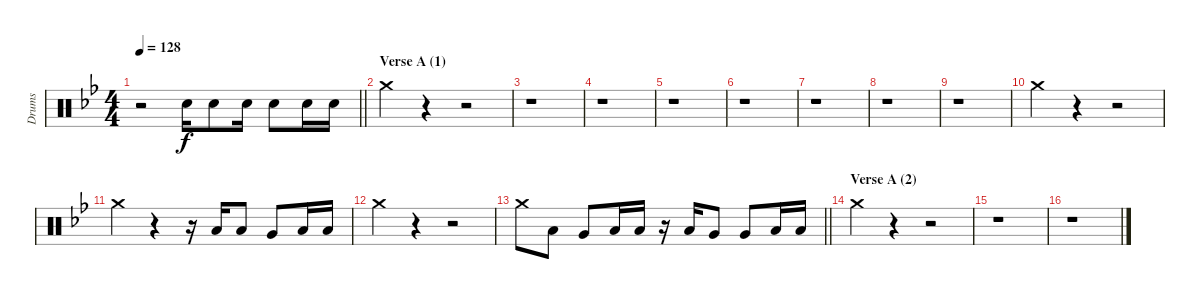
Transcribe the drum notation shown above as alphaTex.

\track ("Drums" "Drums") {instrument percussion}
\staff {score}
\articulation defaults
\ts (4 4)
\tempo 128
\clef neutral
\barLineRight lightlight
\ks gminor
r.2{dy f} "Electric Snare (hit)".16 "Electric Snare (hit)".8 "Electric Snare (hit)".16 "Electric Snare (hit)".8 "Electric Snare (hit)".16 "Electric Snare (hit)".16 |
\section ("" "Verse A (1)")
"Crash medium (hit)".4 r.4 r.2 |
r.1 |
r.1 |
r.1 |
r.1 |
r.1 |
r.1 |
r.1 |
"Crash medium (hit)".4 r.4 r.2 |
"Crash medium (hit)".4 r.4 r.16 "Low Tom (hit)".16 "Low Tom (hit)".8 "Very Low Tom (hit)".8 "Low Floor Tom (hit)".16 "Low Floor Tom (hit)".16 |
"Crash medium (hit)".4 r.4 r.2 |
\barLineRight lightlight "Crash medium (hit)".8 "Low Tom (hit)".8 "Very Low Tom (hit)".8 "Low Tom (hit)".16 "Low Tom (hit)".16
r.16 "Low Tom (hit)".16 "Very Low Tom (hit)".8 "Very Low Tom (hit)".8 "Low Floor Tom (hit)".16 "Low Floor Tom (hit)".16 |
\section ("" "Verse A (2)")
"Crash medium (hit)".4 r.4 r.2 |
r.1 |
r.1
